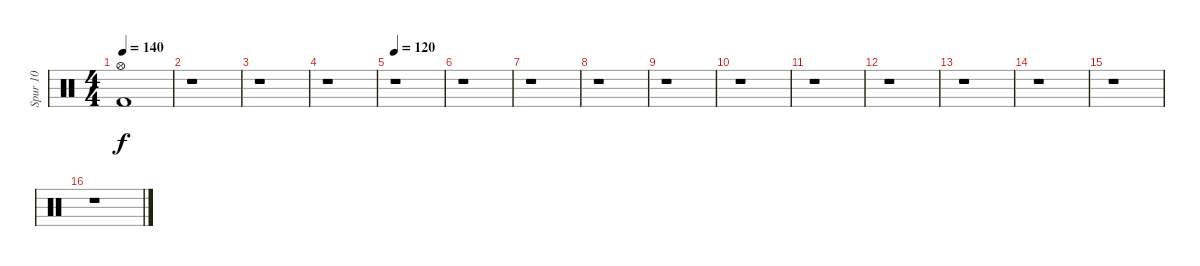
\track ("Spur 10" "Spur 10") {instrument percussion}
\staff {score}
\articulation defaults
\ts (4 4)
\tempo 140
\clef neutral
\ks c
("Hi-Hat (open)" "Kick (hit) 2").1{dy f} |
r.1 |
r.1 |
r.1 |
\tempo 120
r.1 |
r.1 |
r.1 |
r.1 |
r.1 |
r.1 |
r.1 |
r.1 |
r.1 |
r.1 |
r.1 |
r.1
